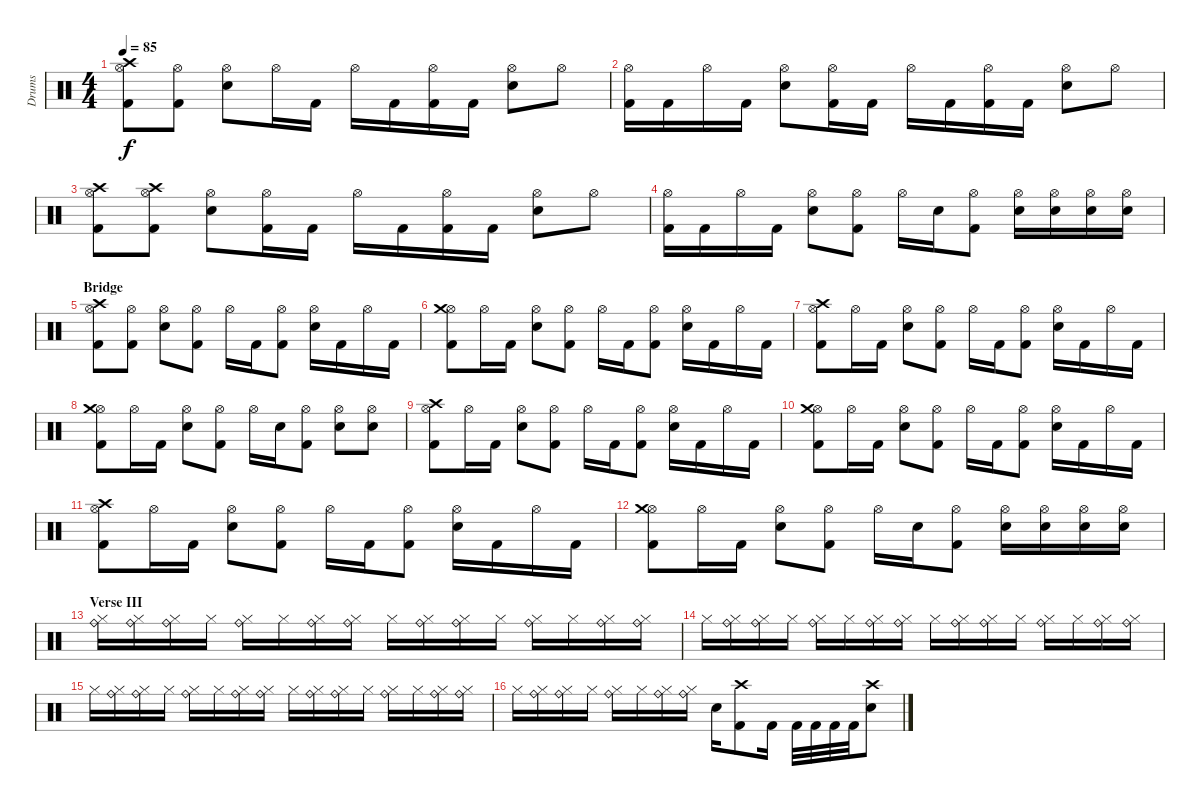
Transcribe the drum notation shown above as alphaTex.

\track ("Drums" "Drums") {instrument percussion}
\staff {score}
\articulation defaults
\ts (4 4)
\tempo 85
\clef neutral
\ks c
("Hi-Hat (open)" "Kick (hit) 2" "Crash high (hit)").8{dy f} ("Hi-Hat (open)" "Kick (hit) 2").8 ("Hi-Hat (open)" "Electric Snare (hit)").8 "Hi-Hat (open)".16 "Kick (hit) 2".16 "Hi-Hat (open)".16 "Kick (hit) 2".16 ("Hi-Hat (open)" "Kick (hit) 2").16 "Kick (hit) 2".16 ("Hi-Hat (open)" "Electric Snare (hit)").8 "Hi-Hat (open)".8 |
("Hi-Hat (open)" "Kick (hit) 2").16 "Kick (hit) 2".16 "Hi-Hat (open)".16 "Kick (hit) 2".16 ("Hi-Hat (open)" "Electric Snare (hit)").8 ("Hi-Hat (open)" "Kick (hit) 2").16 "Kick (hit) 2".16 "Hi-Hat (open)".16 "Kick (hit) 2".16 ("Hi-Hat (open)" "Kick (hit) 2").16 "Kick (hit) 2".16 ("Hi-Hat (open)" "Electric Snare (hit)").8 "Hi-Hat (open)".8 |
("Hi-Hat (open)" "Kick (hit) 2" "Crash high (hit)").8 ("Hi-Hat (open)" "Kick (hit) 2" "Crash high (hit)").8 ("Hi-Hat (open)" "Electric Snare (hit)").8 ("Hi-Hat (open)" "Kick (hit) 2").16 "Kick (hit) 2".16 "Hi-Hat (open)".16 "Kick (hit) 2".16 ("Hi-Hat (open)" "Kick (hit) 2").16 "Kick (hit) 2".16 ("Hi-Hat (open)" "Electric Snare (hit)").8 "Hi-Hat (open)".8 |
("Hi-Hat (open)" "Kick (hit) 2").16 "Kick (hit) 2".16 "Hi-Hat (open)".16 "Kick (hit) 2".16 ("Hi-Hat (open)" "Electric Snare (hit)").8 ("Hi-Hat (open)" "Kick (hit) 2").8 "Hi-Hat (open)".16 "Electric Snare (hit)".16 ("Hi-Hat (open)" "Kick (hit) 2").8 ("Hi-Hat (open)" "Electric Snare (hit)").16 ("Hi-Hat (open)" "Electric Snare (hit)").16 ("Hi-Hat (open)" "Electric Snare (hit)").16 ("Hi-Hat (open)" "Electric Snare (hit)").16 |
\section ("" "Bridge")
("Hi-Hat (open)" "Kick (hit) 2" "Crash high (hit)").8 ("Hi-Hat (open)" "Kick (hit) 2").8 ("Hi-Hat (open)" "Electric Snare (hit)").8 ("Hi-Hat (open)" "Kick (hit) 2").8 "Hi-Hat (open)".16 "Kick (hit) 2".16 ("Hi-Hat (open)" "Kick (hit) 2").8 ("Hi-Hat (open)" "Electric Snare (hit)").16 "Kick (hit) 2".16 "Hi-Hat (open)".16 "Kick (hit) 2".16 |
("Hi-Hat (open)" "Kick (hit) 2" "Crash medium (hit)").8 "Hi-Hat (open)".16 "Kick (hit) 2".16 ("Hi-Hat (open)" "Electric Snare (hit)").8 ("Hi-Hat (open)" "Kick (hit) 2").8 "Hi-Hat (open)".16 "Kick (hit) 2".16 ("Hi-Hat (open)" "Kick (hit) 2").8 ("Hi-Hat (open)" "Electric Snare (hit)").16 "Kick (hit) 2".16 "Hi-Hat (open)".16 "Kick (hit) 2".16 |
("Hi-Hat (open)" "Kick (hit) 2" "Crash high (hit)").8 "Hi-Hat (open)".16 "Kick (hit) 2".16 ("Hi-Hat (open)" "Electric Snare (hit)").8 ("Hi-Hat (open)" "Kick (hit) 2").8 "Hi-Hat (open)".16 "Kick (hit) 2".16 ("Hi-Hat (open)" "Kick (hit) 2").8 ("Hi-Hat (open)" "Electric Snare (hit)").16 "Kick (hit) 2".16 "Hi-Hat (open)".16 "Kick (hit) 2".16 |
("Hi-Hat (open)" "Kick (hit) 2" "Crash medium (hit)").8 "Hi-Hat (open)".16 "Kick (hit) 2".16 ("Hi-Hat (open)" "Electric Snare (hit)").8 ("Hi-Hat (open)" "Kick (hit) 2").8 "Hi-Hat (open)".16 "Electric Snare (hit)".16 ("Hi-Hat (open)" "Kick (hit) 2").8 ("Hi-Hat (open)" "Electric Snare (hit)").8 ("Hi-Hat (open)" "Electric Snare (hit)").8 |
("Hi-Hat (open)" "Kick (hit) 2" "Crash high (hit)").8 "Hi-Hat (open)".16 "Kick (hit) 2".16 ("Hi-Hat (open)" "Electric Snare (hit)").8 ("Hi-Hat (open)" "Kick (hit) 2").8 "Hi-Hat (open)".16 "Kick (hit) 2".16 ("Hi-Hat (open)" "Kick (hit) 2").8 ("Hi-Hat (open)" "Electric Snare (hit)").16 "Kick (hit) 2".16 "Hi-Hat (open)".16 "Kick (hit) 2".16 |
("Hi-Hat (open)" "Kick (hit) 2" "Crash medium (hit)").8 "Hi-Hat (open)".16 "Kick (hit) 2".16 ("Hi-Hat (open)" "Electric Snare (hit)").8 ("Hi-Hat (open)" "Kick (hit) 2").8 "Hi-Hat (open)".16 "Kick (hit) 2".16 ("Hi-Hat (open)" "Kick (hit) 2").8 ("Hi-Hat (open)" "Electric Snare (hit)").16 "Kick (hit) 2".16 "Hi-Hat (open)".16 "Kick (hit) 2".16 |
("Hi-Hat (open)" "Kick (hit) 2" "Crash high (hit)").8 "Hi-Hat (open)".16 "Kick (hit) 2".16 ("Hi-Hat (open)" "Electric Snare (hit)").8 ("Hi-Hat (open)" "Kick (hit) 2").8 "Hi-Hat (open)".16 "Kick (hit) 2".16 ("Hi-Hat (open)" "Kick (hit) 2").8 ("Hi-Hat (open)" "Electric Snare (hit)").16 "Kick (hit) 2".16 "Hi-Hat (open)".16 "Kick (hit) 2".16 |
("Hi-Hat (open)" "Kick (hit) 2" "Crash medium (hit)").8 "Hi-Hat (open)".16 "Kick (hit) 2".16 ("Hi-Hat (open)" "Electric Snare (hit)").8 ("Hi-Hat (open)" "Kick (hit) 2").8 "Hi-Hat (open)".16 "Electric Snare (hit)".16 ("Hi-Hat (open)" "Kick (hit) 2").8 ("Hi-Hat (open)" "Electric Snare (hit)").16 ("Hi-Hat (open)" "Electric Snare (hit)").16 ("Hi-Hat (open)" "Electric Snare (hit)").16 ("Hi-Hat (open)" "Electric Snare (hit)").16 |
\section ("" "Verse III")
("Hi-Hat (closed)" "Ride (bell)").16 ("Hi-Hat (closed)" "Ride (bell)").16 ("Hi-Hat (closed)" "Ride (bell)").16 "Hi-Hat (closed)".16 ("Hi-Hat (closed)" "Ride (bell)").16 "Hi-Hat (closed)".16 ("Hi-Hat (closed)" "Ride (bell)").16 ("Hi-Hat (closed)" "Ride (bell)").16 "Hi-Hat (closed)".16 ("Hi-Hat (closed)" "Ride (bell)").16 ("Hi-Hat (closed)" "Ride (bell)").16 "Hi-Hat (closed)".16 ("Hi-Hat (closed)" "Ride (bell)").16 "Hi-Hat (closed)".16 ("Hi-Hat (closed)" "Ride (bell)").16 ("Hi-Hat (closed)" "Ride (bell)").16 |
"Hi-Hat (closed)".16 ("Hi-Hat (closed)" "Ride (bell)").16 ("Hi-Hat (closed)" "Ride (bell)").16 "Hi-Hat (closed)".16 ("Hi-Hat (closed)" "Ride (bell)").16 "Hi-Hat (closed)".16 ("Hi-Hat (closed)" "Ride (bell)").16 ("Hi-Hat (closed)" "Ride (bell)").16 "Hi-Hat (closed)".16 ("Hi-Hat (closed)" "Ride (bell)").16 ("Hi-Hat (closed)" "Ride (bell)").16 "Hi-Hat (closed)".16 ("Hi-Hat (closed)" "Ride (bell)").16 "Hi-Hat (closed)".16 ("Hi-Hat (closed)" "Ride (bell)").16 ("Hi-Hat (closed)" "Ride (bell)").16 |
"Hi-Hat (closed)".16 ("Hi-Hat (closed)" "Ride (bell)").16 ("Hi-Hat (closed)" "Ride (bell)").16 "Hi-Hat (closed)".16 ("Hi-Hat (closed)" "Ride (bell)").16 "Hi-Hat (closed)".16 ("Hi-Hat (closed)" "Ride (bell)").16 ("Hi-Hat (closed)" "Ride (bell)").16 "Hi-Hat (closed)".16 ("Hi-Hat (closed)" "Ride (bell)").16 ("Hi-Hat (closed)" "Ride (bell)").16 "Hi-Hat (closed)".16 ("Hi-Hat (closed)" "Ride (bell)").16 "Hi-Hat (closed)".16 ("Hi-Hat (closed)" "Ride (bell)").16 ("Hi-Hat (closed)" "Ride (bell)").16 |
"Hi-Hat (closed)".16 ("Hi-Hat (closed)" "Ride (bell)").16 ("Hi-Hat (closed)" "Ride (bell)").16 "Hi-Hat (closed)".16 ("Hi-Hat (closed)" "Ride (bell)").16 "Hi-Hat (closed)".16 ("Hi-Hat (closed)" "Ride (bell)").16 ("Hi-Hat (closed)" "Ride (bell)").16 "Electric Snare (hit)".16 ("Kick (hit) 2" "Crash high (hit)").8 "Kick (hit) 2".16 "Kick (hit) 2".32 "Kick (hit) 2".32 "Kick (hit) 2".32 "Kick (hit) 2".32 ("Electric Snare (hit)" "Crash high (hit)").8
